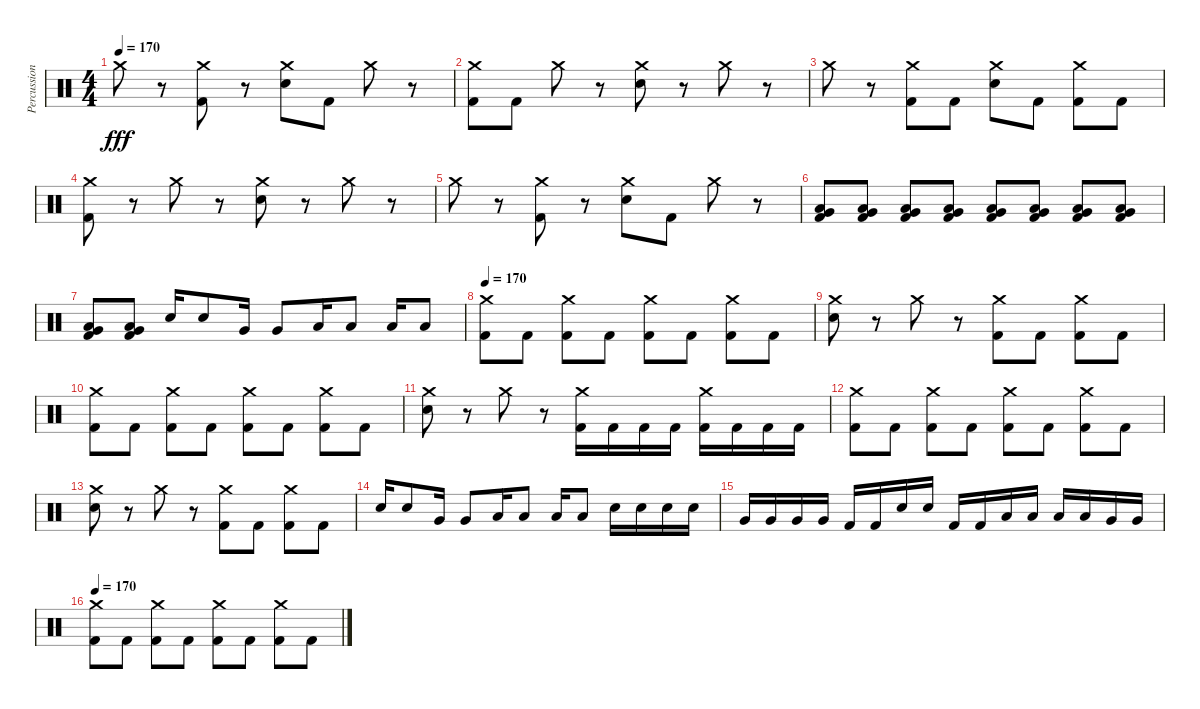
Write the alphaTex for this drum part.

\track ("Percussion" "Percussion") {instrument percussion}
\staff {score}
\articulation defaults
\ts (4 4)
\tempo 170
\clef neutral
\ks c "Crash medium (hit)".8{dy fff}
r.8 ("Crash medium (hit)" "Kick (hit) 2").8 r.8 ("Crash medium (hit)" "Electric Snare (hit)").8 "Kick (hit) 2".8 "Crash medium (hit)".8 r.8 |
("Crash medium (hit)" "Kick (hit) 2").8 "Kick (hit) 2".8 "Crash medium (hit)".8 r.8 ("Crash medium (hit)" "Electric Snare (hit)").8 r.8 "Crash medium (hit)".8 r.8 |
"Crash medium (hit)".8 r.8 ("Crash medium (hit)" "Kick (hit) 2").8 "Kick (hit) 2".8 ("Crash medium (hit)" "Electric Snare (hit)").8 "Kick (hit) 2".8 ("Crash medium (hit)" "Kick (hit) 2").8 "Kick (hit) 2".8 |
("Crash medium (hit)" "Kick (hit) 2").8 r.8 "Crash medium (hit)".8 r.8 ("Crash medium (hit)" "Electric Snare (hit)").8 r.8 "Crash medium (hit)".8 r.8 |
"Crash medium (hit)".8 r.8 ("Crash medium (hit)" "Kick (hit) 2").8 r.8 ("Crash medium (hit)" "Electric Snare (hit)").8 "Kick (hit) 2".8 "Crash medium (hit)".8 r.8 |
("Low Floor Tom (hit)" "Very Low Tom (hit)" "Kick (hit) 2").8 ("Low Floor Tom (hit)" "Very Low Tom (hit)" "Kick (hit) 2").8 ("Low Floor Tom (hit)" "Very Low Tom (hit)" "Kick (hit) 2").8 ("Low Floor Tom (hit)" "Very Low Tom (hit)" "Kick (hit) 2").8 ("Low Floor Tom (hit)" "Very Low Tom (hit)" "Kick (hit) 2").8 ("Low Floor Tom (hit)" "Very Low Tom (hit)" "Kick (hit) 2").8 ("Low Floor Tom (hit)" "Very Low Tom (hit)" "Kick (hit) 2").8 ("Low Floor Tom (hit)" "Very Low Tom (hit)" "Kick (hit) 2").8 |
("Low Floor Tom (hit)" "Very Low Tom (hit)" "Kick (hit) 2").8 ("Low Floor Tom (hit)" "Very Low Tom (hit)" "Kick (hit) 2").8 "Electric Snare (hit)".16 "Electric Snare (hit)".8 "Very Low Tom (hit)".16 "Very Low Tom (hit)".8 "Low Tom (hit)".16 "Low Tom (hit)".8 "Low Floor Tom (hit)".16 "Low Floor Tom (hit)".8 |
\tempo 170
("Crash medium (hit)" "Kick (hit) 2").8 "Kick (hit) 2".8 ("Crash medium (hit)" "Kick (hit) 2").8 "Kick (hit) 2".8 ("Crash medium (hit)" "Kick (hit) 2").8 "Kick (hit) 2".8 ("Crash medium (hit)" "Kick (hit) 2").8 "Kick (hit) 2".8 |
("Crash medium (hit)" "Electric Snare (hit)").8 r.8 "Crash medium (hit)".8 r.8 ("Crash medium (hit)" "Kick (hit) 2").8 "Kick (hit) 2".8 ("Crash medium (hit)" "Kick (hit) 2").8 "Kick (hit) 2".8 |
("Crash medium (hit)" "Kick (hit) 2").8 "Kick (hit) 2".8 ("Crash medium (hit)" "Kick (hit) 2").8 "Kick (hit) 2".8 ("Crash medium (hit)" "Kick (hit) 2").8 "Kick (hit) 2".8 ("Crash medium (hit)" "Kick (hit) 2").8 "Kick (hit) 2".8 |
("Crash medium (hit)" "Electric Snare (hit)").8 r.8 "Crash medium (hit)".8 r.8 ("Crash medium (hit)" "Kick (hit) 2").16 "Kick (hit) 2".16 "Kick (hit) 2".16 "Kick (hit) 2".16 ("Crash medium (hit)" "Kick (hit) 2").16 "Kick (hit) 2".16 "Kick (hit) 2".16 "Kick (hit) 2".16 |
("Crash medium (hit)" "Kick (hit) 2").8 "Kick (hit) 2".8 ("Crash medium (hit)" "Kick (hit) 2").8 "Kick (hit) 2".8 ("Crash medium (hit)" "Kick (hit) 2").8 "Kick (hit) 2".8 ("Crash medium (hit)" "Kick (hit) 2").8 "Kick (hit) 2".8 |
("Crash medium (hit)" "Electric Snare (hit)").8 r.8 "Crash medium (hit)".8 r.8 ("Crash medium (hit)" "Kick (hit) 2").8 "Kick (hit) 2".8 ("Crash medium (hit)" "Kick (hit) 2").8 "Kick (hit) 2".8 |
"Electric Snare (hit)".16 "Electric Snare (hit)".8 "Very Low Tom (hit)".16 "Very Low Tom (hit)".8 "Low Tom (hit)".16 "Low Tom (hit)".8 "Low Floor Tom (hit)".16 "Low Floor Tom (hit)".8 "Electric Snare (hit)".16 "Electric Snare (hit)".16 "Electric Snare (hit)".16 "Electric Snare (hit)".16 |
"Very Low Tom (hit)".16 "Very Low Tom (hit)".16 "Very Low Tom (hit)".16 "Very Low Tom (hit)".16 "Kick (hit) 2".16 "Kick (hit) 2".16 "Electric Snare (hit)".16 "Electric Snare (hit)".16 "Kick (hit) 2".16 "Kick (hit) 2".16 "Low Tom (hit)".16 "Low Tom (hit)".16 "Low Tom (hit)".16 "Low Tom (hit)".16 "Very Low Tom (hit)".16 "Very Low Tom (hit)".16 |
\tempo 170
("Crash medium (hit)" "Kick (hit) 2").8 "Kick (hit) 2".8 ("Crash medium (hit)" "Kick (hit) 2").8 "Kick (hit) 2".8 ("Crash medium (hit)" "Kick (hit) 2").8 "Kick (hit) 2".8 ("Crash medium (hit)" "Kick (hit) 2").8 "Kick (hit) 2".8
